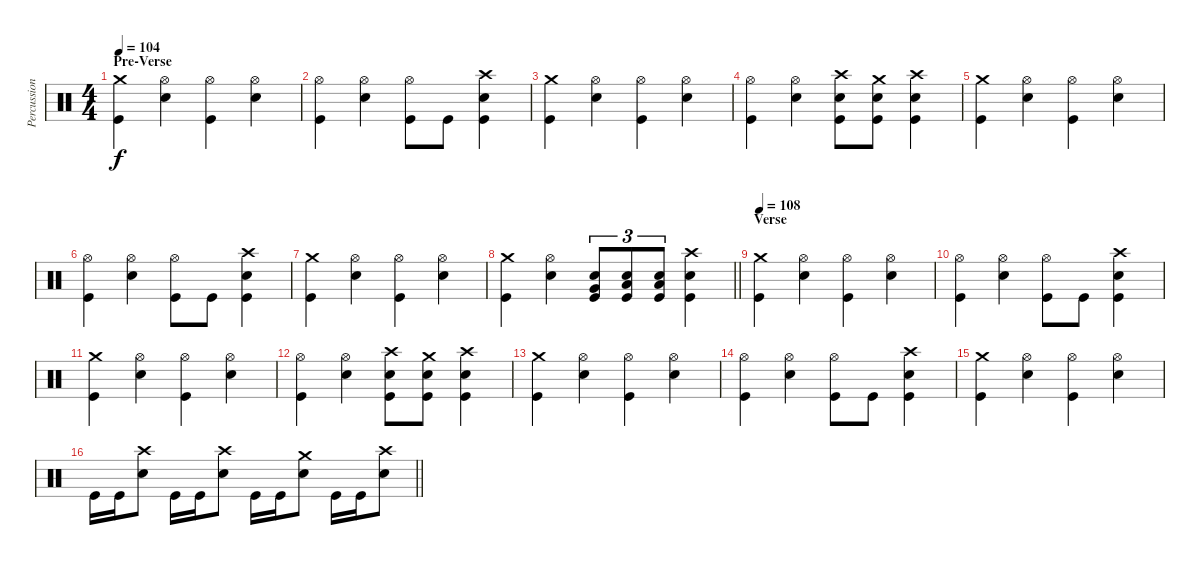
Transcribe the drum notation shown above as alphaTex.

\track ("Percussions" "Percussion") {instrument percussion}
\staff {score}
\articulation defaults
\ts (4 4)
\section ("" "Pre-Verse")
\tempo 104
\clef neutral
\ks c
("Crash medium (hit)" "Kick (hit)").4{dy f} ("Hi-Hat (open)" "Electric Snare (hit)").4 ("Hi-Hat (open)" "Kick (hit)").4 ("Hi-Hat (open)" "Electric Snare (hit)").4 |
("Hi-Hat (open)" "Kick (hit)").4 ("Hi-Hat (open)" "Electric Snare (hit)").4 ("Hi-Hat (open)" "Kick (hit)").8 "Kick (hit)".8 ("Crash high (hit)" "Electric Snare (hit)" "Kick (hit)").4 |
("Crash medium (hit)" "Kick (hit)").4 ("Hi-Hat (open)" "Electric Snare (hit)").4 ("Hi-Hat (open)" "Kick (hit)").4 ("Hi-Hat (open)" "Electric Snare (hit)").4 |
("Hi-Hat (open)" "Kick (hit)").4 ("Hi-Hat (open)" "Electric Snare (hit)").4 ("Crash high (hit)" "Electric Snare (hit)" "Kick (hit)").8 ("Crash medium (hit)" "Electric Snare (hit)" "Kick (hit)").8 ("Crash high (hit)" "Electric Snare (hit)" "Kick (hit)").4 |
("Crash medium (hit)" "Kick (hit)").4 ("Hi-Hat (open)" "Electric Snare (hit)").4 ("Hi-Hat (open)" "Kick (hit)").4 ("Hi-Hat (open)" "Electric Snare (hit)").4 |
("Hi-Hat (open)" "Kick (hit)").4 ("Hi-Hat (open)" "Electric Snare (hit)").4 ("Hi-Hat (open)" "Kick (hit)").8 "Kick (hit)".8 ("Crash high (hit)" "Electric Snare (hit)" "Kick (hit)").4 |
("Crash medium (hit)" "Kick (hit)").4 ("Hi-Hat (open)" "Electric Snare (hit)").4 ("Hi-Hat (open)" "Kick (hit)").4 ("Hi-Hat (open)" "Electric Snare (hit)").4 |
\barLineRight lightlight
("Crash medium (hit)" "Kick (hit)").4 ("Hi-Hat (open)" "Electric Snare (hit)").4 ("Electric Snare (hit)" "Very Low Tom (hit)" "Kick (hit)").8{tu (3 2)} ("Electric Snare (hit)" "Low Floor Tom (hit)" "Kick (hit)").8{tu (3 2)} ("Electric Snare (hit)" "Low Floor Tom (hit)" "Kick (hit)").8{tu (3 2)} ("Crash high (hit)" "Electric Snare (hit)" "Kick (hit)").4 |
\section ("" "Verse")
\tempo 108
("Crash medium (hit)" "Kick (hit)").4 ("Hi-Hat (open)" "Electric Snare (hit)").4 ("Hi-Hat (open)" "Kick (hit)").4 ("Hi-Hat (open)" "Electric Snare (hit)").4 |
("Hi-Hat (open)" "Kick (hit)").4 ("Hi-Hat (open)" "Electric Snare (hit)").4 ("Hi-Hat (open)" "Kick (hit)").8 "Kick (hit)".8 ("Crash high (hit)" "Electric Snare (hit)" "Kick (hit)").4 |
("Crash medium (hit)" "Kick (hit)").4 ("Hi-Hat (open)" "Electric Snare (hit)").4 ("Hi-Hat (open)" "Kick (hit)").4 ("Hi-Hat (open)" "Electric Snare (hit)").4 |
("Hi-Hat (open)" "Kick (hit)").4 ("Hi-Hat (open)" "Electric Snare (hit)").4 ("Crash high (hit)" "Electric Snare (hit)" "Kick (hit)").8 ("Crash medium (hit)" "Electric Snare (hit)" "Kick (hit)").8 ("Crash high (hit)" "Electric Snare (hit)" "Kick (hit)").4 |
("Crash medium (hit)" "Kick (hit)").4 ("Hi-Hat (open)" "Electric Snare (hit)").4 ("Hi-Hat (open)" "Kick (hit)").4 ("Hi-Hat (open)" "Electric Snare (hit)").4 |
("Hi-Hat (open)" "Kick (hit)").4 ("Hi-Hat (open)" "Electric Snare (hit)").4 ("Hi-Hat (open)" "Kick (hit)").8 "Kick (hit)".8 ("Crash high (hit)" "Electric Snare (hit)" "Kick (hit)").4 |
("Crash medium (hit)" "Kick (hit)").4 ("Hi-Hat (open)" "Electric Snare (hit)").4 ("Hi-Hat (open)" "Kick (hit)").4 ("Hi-Hat (open)" "Electric Snare (hit)").4 |
\barLineRight lightlight "Kick (hit)".16 "Kick (hit)".16
("Crash high (hit)" "Electric Snare (hit)").8 "Kick (hit)".16 "Kick (hit)".16 ("Crash high (hit)" "Electric Snare (hit)").8 "Kick (hit)".16 "Kick (hit)".16 ("Crash medium (hit)" "Electric Snare (hit)").8 "Kick (hit)".16 "Kick (hit)".16 ("Crash high (hit)" "Electric Snare (hit)").8
